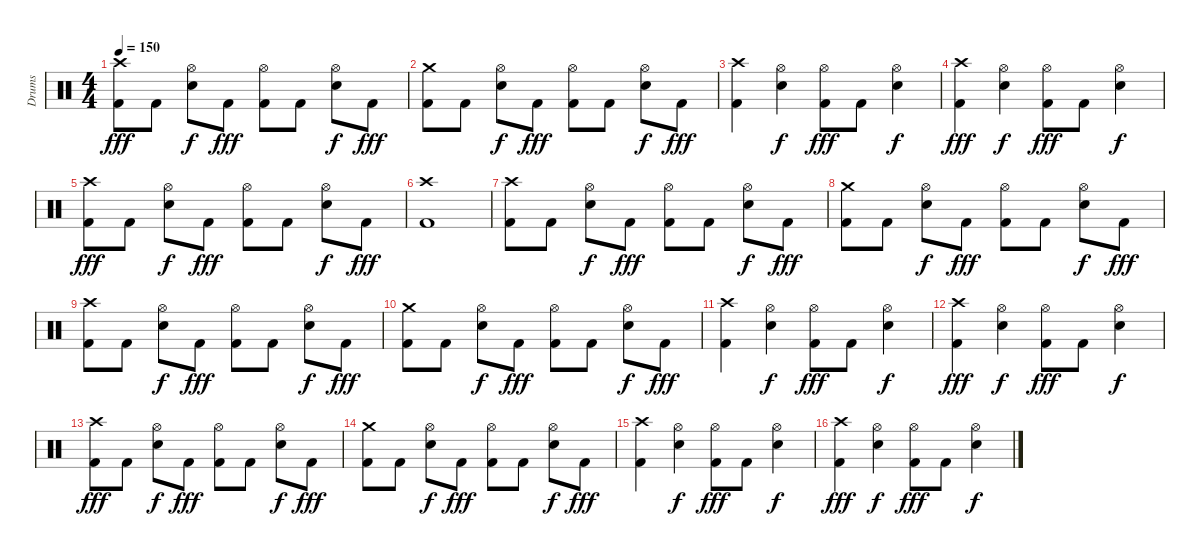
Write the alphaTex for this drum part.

\track ("Drums" "Drums") {instrument percussion}
\staff {score}
\articulation defaults
\ts (4 4)
\tempo 150
\clef neutral
\ks c
("Crash high (hit)" "Kick (hit) 2").8{dy fff} "Kick (hit) 2".8 ("Hi-Hat (open)" "Snare (hit) 2").8{dy f} "Kick (hit) 2".8{dy fff} ("Hi-Hat (open)" "Kick (hit) 2").8 "Kick (hit) 2".8 ("Hi-Hat (open)" "Snare (hit) 2").8{dy f} "Kick (hit) 2".8{dy fff} |
("Crash medium (hit)" "Kick (hit) 2").8 "Kick (hit) 2".8 ("Hi-Hat (open)" "Snare (hit) 2").8{dy f} "Kick (hit) 2".8{dy fff} ("Hi-Hat (open)" "Kick (hit) 2").8 "Kick (hit) 2".8 ("Hi-Hat (open)" "Snare (hit) 2").8{dy f} "Kick (hit) 2".8{dy fff} |
("Crash high (hit)" "Kick (hit) 2").4 ("Hi-Hat (open)" "Snare (hit) 2").4{dy f} ("Hi-Hat (open)" "Kick (hit) 2").8{dy fff} "Kick (hit) 2".8 ("Hi-Hat (open)" "Snare (hit) 2").4{dy f} |
("Crash high (hit)" "Kick (hit) 2").4{dy fff} ("Hi-Hat (open)" "Snare (hit) 2").4{dy f} ("Hi-Hat (open)" "Kick (hit) 2").8{dy fff} "Kick (hit) 2".8 ("Hi-Hat (open)" "Snare (hit) 2").4{dy f} |
("Crash high (hit)" "Kick (hit) 2").8{dy fff} "Kick (hit) 2".8 ("Hi-Hat (open)" "Snare (hit) 2").8{dy f} "Kick (hit) 2".8{dy fff} ("Hi-Hat (open)" "Kick (hit) 2").8 "Kick (hit) 2".8 ("Hi-Hat (open)" "Snare (hit) 2").8{dy f} "Kick (hit) 2".8{dy fff} |
("Crash high (hit)" "Kick (hit) 2").1 |
("Crash high (hit)" "Kick (hit) 2").8 "Kick (hit) 2".8 ("Hi-Hat (open)" "Snare (hit) 2").8{dy f} "Kick (hit) 2".8{dy fff} ("Hi-Hat (open)" "Kick (hit) 2").8 "Kick (hit) 2".8 ("Hi-Hat (open)" "Snare (hit) 2").8{dy f} "Kick (hit) 2".8{dy fff} |
("Crash medium (hit)" "Kick (hit) 2").8 "Kick (hit) 2".8 ("Hi-Hat (open)" "Snare (hit) 2").8{dy f} "Kick (hit) 2".8{dy fff} ("Hi-Hat (open)" "Kick (hit) 2").8 "Kick (hit) 2".8 ("Hi-Hat (open)" "Snare (hit) 2").8{dy f} "Kick (hit) 2".8{dy fff} |
("Crash high (hit)" "Kick (hit) 2").8 "Kick (hit) 2".8 ("Hi-Hat (open)" "Snare (hit) 2").8{dy f} "Kick (hit) 2".8{dy fff} ("Hi-Hat (open)" "Kick (hit) 2").8 "Kick (hit) 2".8 ("Hi-Hat (open)" "Snare (hit) 2").8{dy f} "Kick (hit) 2".8{dy fff} |
("Crash medium (hit)" "Kick (hit) 2").8 "Kick (hit) 2".8 ("Hi-Hat (open)" "Snare (hit) 2").8{dy f} "Kick (hit) 2".8{dy fff} ("Hi-Hat (open)" "Kick (hit) 2").8 "Kick (hit) 2".8 ("Hi-Hat (open)" "Snare (hit) 2").8{dy f} "Kick (hit) 2".8{dy fff} |
("Crash high (hit)" "Kick (hit) 2").4 ("Hi-Hat (open)" "Snare (hit) 2").4{dy f} ("Hi-Hat (open)" "Kick (hit) 2").8{dy fff} "Kick (hit) 2".8 ("Hi-Hat (open)" "Snare (hit) 2").4{dy f} |
("Crash high (hit)" "Kick (hit) 2").4{dy fff} ("Hi-Hat (open)" "Snare (hit) 2").4{dy f} ("Hi-Hat (open)" "Kick (hit) 2").8{dy fff} "Kick (hit) 2".8 ("Hi-Hat (open)" "Snare (hit) 2").4{dy f} |
("Crash high (hit)" "Kick (hit) 2").8{dy fff} "Kick (hit) 2".8 ("Hi-Hat (open)" "Snare (hit) 2").8{dy f} "Kick (hit) 2".8{dy fff} ("Hi-Hat (open)" "Kick (hit) 2").8 "Kick (hit) 2".8 ("Hi-Hat (open)" "Snare (hit) 2").8{dy f} "Kick (hit) 2".8{dy fff} |
("Crash medium (hit)" "Kick (hit) 2").8 "Kick (hit) 2".8 ("Hi-Hat (open)" "Snare (hit) 2").8{dy f} "Kick (hit) 2".8{dy fff} ("Hi-Hat (open)" "Kick (hit) 2").8 "Kick (hit) 2".8 ("Hi-Hat (open)" "Snare (hit) 2").8{dy f} "Kick (hit) 2".8{dy fff} |
("Crash high (hit)" "Kick (hit) 2").4 ("Hi-Hat (open)" "Snare (hit) 2").4{dy f} ("Hi-Hat (open)" "Kick (hit) 2").8{dy fff} "Kick (hit) 2".8 ("Hi-Hat (open)" "Snare (hit) 2").4{dy f} |
("Crash high (hit)" "Kick (hit) 2").4{dy fff} ("Hi-Hat (open)" "Snare (hit) 2").4{dy f} ("Hi-Hat (open)" "Kick (hit) 2").8{dy fff} "Kick (hit) 2".8 ("Hi-Hat (open)" "Snare (hit) 2").4{dy f}
